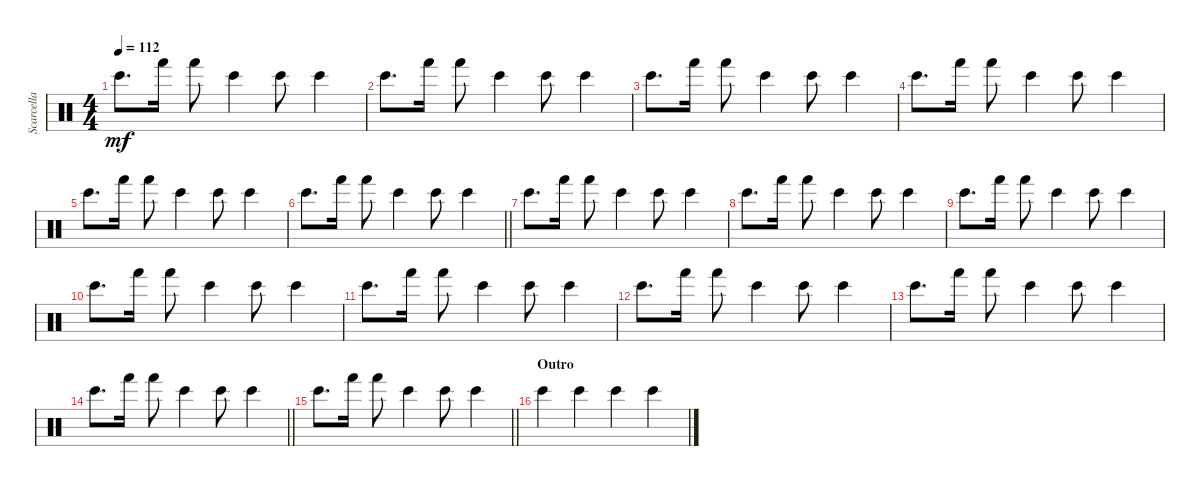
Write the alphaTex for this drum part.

\track ("Scarcella" "Scarcella") {instrument percussion}
\staff {score}
\articulation defaults
\ts (4 4)
\tempo 112
\clef neutral
\ks c "Bongo High (hit)".8{d dy mf} "Hand (hit)".16 "Hand (hit)".8 "Bongo High (hit)".4 "Bongo High (hit)".8 "Bongo High (hit)".4
|
"Bongo High (hit)".8{d} "Hand (hit)".16 "Hand (hit)".8 "Bongo High (hit)".4 "Bongo High (hit)".8 "Bongo High (hit)".4 |
"Bongo High (hit)".8{d} "Hand (hit)".16 "Hand (hit)".8 "Bongo High (hit)".4 "Bongo High (hit)".8 "Bongo High (hit)".4 |
"Bongo High (hit)".8{d} "Hand (hit)".16 "Hand (hit)".8 "Bongo High (hit)".4 "Bongo High (hit)".8 "Bongo High (hit)".4 |
"Bongo High (hit)".8{d} "Hand (hit)".16 "Hand (hit)".8 "Bongo High (hit)".4 "Bongo High (hit)".8 "Bongo High (hit)".4 |
\barLineRight lightlight "Bongo High (hit)".8{d} "Hand (hit)".16 "Hand (hit)".8 "Bongo High (hit)".4 "Bongo High (hit)".8 "Bongo High (hit)".4
|
"Bongo High (hit)".8{d} "Hand (hit)".16 "Hand (hit)".8 "Bongo High (hit)".4 "Bongo High (hit)".8 "Bongo High (hit)".4 |
"Bongo High (hit)".8{d} "Hand (hit)".16 "Hand (hit)".8 "Bongo High (hit)".4 "Bongo High (hit)".8 "Bongo High (hit)".4 |
"Bongo High (hit)".8{d} "Hand (hit)".16 "Hand (hit)".8 "Bongo High (hit)".4 "Bongo High (hit)".8 "Bongo High (hit)".4 |
"Bongo High (hit)".8{d} "Hand (hit)".16 "Hand (hit)".8 "Bongo High (hit)".4 "Bongo High (hit)".8 "Bongo High (hit)".4 |
"Bongo High (hit)".8{d} "Hand (hit)".16 "Hand (hit)".8 "Bongo High (hit)".4 "Bongo High (hit)".8 "Bongo High (hit)".4 |
"Bongo High (hit)".8{d} "Hand (hit)".16 "Hand (hit)".8 "Bongo High (hit)".4 "Bongo High (hit)".8 "Bongo High (hit)".4 |
"Bongo High (hit)".8{d} "Hand (hit)".16 "Hand (hit)".8 "Bongo High (hit)".4 "Bongo High (hit)".8 "Bongo High (hit)".4 |
\barLineRight lightlight "Bongo High (hit)".8{d} "Hand (hit)".16 "Hand (hit)".8 "Bongo High (hit)".4 "Bongo High (hit)".8 "Bongo High (hit)".4
|
\barLineRight lightlight "Bongo High (hit)".8{d} "Hand (hit)".16 "Hand (hit)".8 "Bongo High (hit)".4 "Bongo High (hit)".8 "Bongo High (hit)".4
|
\section ("" "Outro")
"Bongo High (hit)".4 "Bongo High (hit)".4 "Bongo High (hit)".4 "Bongo High (hit)".4
